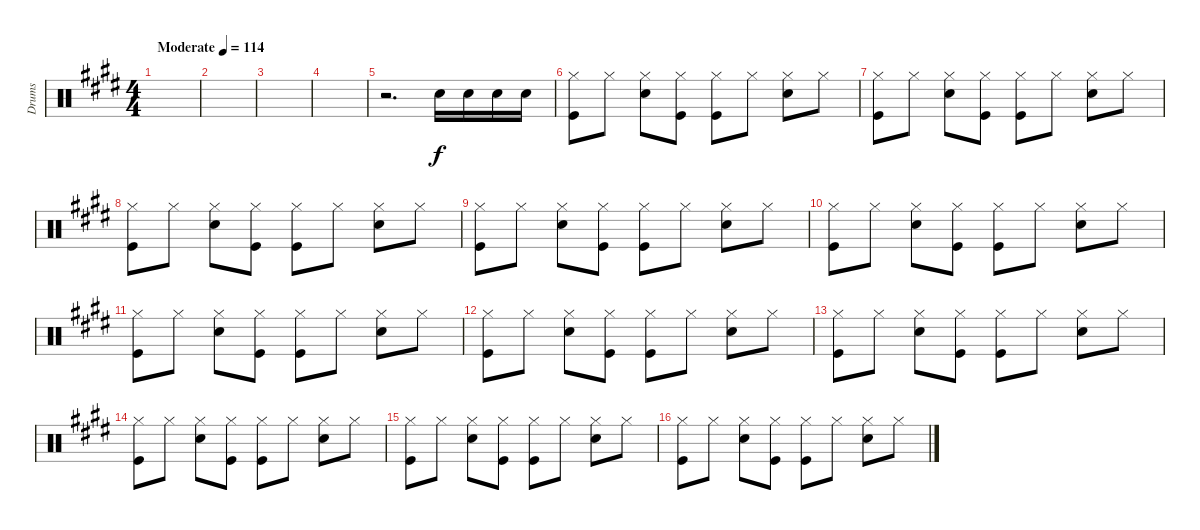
\track ("Drums" "Drums") {instrument percussion}
\staff {score}
\articulation defaults
\ts (4 4)
\tempo (114 "Moderate")
\clef neutral
\ks e
|
|
|
|
r.2{d} "Snare (hit) 2".16 "Snare (hit) 2".16 "Snare (hit) 2".16 "Snare (hit) 2".16 |
("Hi-Hat (closed)" "Kick (hit)").8 "Hi-Hat (closed)".8 ("Snare (hit) 2" "Hi-Hat (closed)").8 ("Hi-Hat (closed)" "Kick (hit)").8 ("Hi-Hat (closed)" "Kick (hit)").8 "Hi-Hat (closed)".8 ("Hi-Hat (closed)" "Snare (hit) 2").8 "Hi-Hat (closed)".8 |
("Hi-Hat (closed)" "Kick (hit)").8 "Hi-Hat (closed)".8 ("Snare (hit) 2" "Hi-Hat (closed)").8 ("Hi-Hat (closed)" "Kick (hit)").8 ("Hi-Hat (closed)" "Kick (hit)").8 "Hi-Hat (closed)".8 ("Hi-Hat (closed)" "Snare (hit) 2").8 "Hi-Hat (closed)".8 |
("Hi-Hat (closed)" "Kick (hit)").8 "Hi-Hat (closed)".8 ("Snare (hit) 2" "Hi-Hat (closed)").8 ("Hi-Hat (closed)" "Kick (hit)").8 ("Hi-Hat (closed)" "Kick (hit)").8 "Hi-Hat (closed)".8 ("Hi-Hat (closed)" "Snare (hit) 2").8 "Hi-Hat (closed)".8 |
("Hi-Hat (closed)" "Kick (hit)").8 "Hi-Hat (closed)".8 ("Snare (hit) 2" "Hi-Hat (closed)").8 ("Hi-Hat (closed)" "Kick (hit)").8 ("Hi-Hat (closed)" "Kick (hit)").8 "Hi-Hat (closed)".8 ("Hi-Hat (closed)" "Snare (hit) 2").8 "Hi-Hat (closed)".8 |
("Hi-Hat (closed)" "Kick (hit)").8 "Hi-Hat (closed)".8 ("Snare (hit) 2" "Hi-Hat (closed)").8 ("Hi-Hat (closed)" "Kick (hit)").8 ("Hi-Hat (closed)" "Kick (hit)").8 "Hi-Hat (closed)".8 ("Hi-Hat (closed)" "Snare (hit) 2").8 "Hi-Hat (closed)".8 |
("Hi-Hat (closed)" "Kick (hit)").8 "Hi-Hat (closed)".8 ("Snare (hit) 2" "Hi-Hat (closed)").8 ("Hi-Hat (closed)" "Kick (hit)").8 ("Hi-Hat (closed)" "Kick (hit)").8 "Hi-Hat (closed)".8 ("Hi-Hat (closed)" "Snare (hit) 2").8 "Hi-Hat (closed)".8 |
("Hi-Hat (closed)" "Kick (hit)").8 "Hi-Hat (closed)".8 ("Snare (hit) 2" "Hi-Hat (closed)").8 ("Hi-Hat (closed)" "Kick (hit)").8 ("Hi-Hat (closed)" "Kick (hit)").8 "Hi-Hat (closed)".8 ("Hi-Hat (closed)" "Snare (hit) 2").8 "Hi-Hat (closed)".8 |
("Hi-Hat (closed)" "Kick (hit)").8 "Hi-Hat (closed)".8 ("Snare (hit) 2" "Hi-Hat (closed)").8 ("Hi-Hat (closed)" "Kick (hit)").8 ("Hi-Hat (closed)" "Kick (hit)").8 "Hi-Hat (closed)".8 ("Hi-Hat (closed)" "Snare (hit) 2").8 "Hi-Hat (closed)".8 |
("Hi-Hat (closed)" "Kick (hit)").8 "Hi-Hat (closed)".8 ("Snare (hit) 2" "Hi-Hat (closed)").8 ("Hi-Hat (closed)" "Kick (hit)").8 ("Hi-Hat (closed)" "Kick (hit)").8 "Hi-Hat (closed)".8 ("Hi-Hat (closed)" "Snare (hit) 2").8 "Hi-Hat (closed)".8 |
("Hi-Hat (closed)" "Kick (hit)").8 "Hi-Hat (closed)".8 ("Snare (hit) 2" "Hi-Hat (closed)").8 ("Hi-Hat (closed)" "Kick (hit)").8 ("Hi-Hat (closed)" "Kick (hit)").8 "Hi-Hat (closed)".8 ("Hi-Hat (closed)" "Snare (hit) 2").8 "Hi-Hat (closed)".8 |
("Hi-Hat (closed)" "Kick (hit)").8 "Hi-Hat (closed)".8 ("Snare (hit) 2" "Hi-Hat (closed)").8 ("Hi-Hat (closed)" "Kick (hit)").8 ("Hi-Hat (closed)" "Kick (hit)").8 "Hi-Hat (closed)".8 ("Hi-Hat (closed)" "Snare (hit) 2").8 "Hi-Hat (closed)".8
